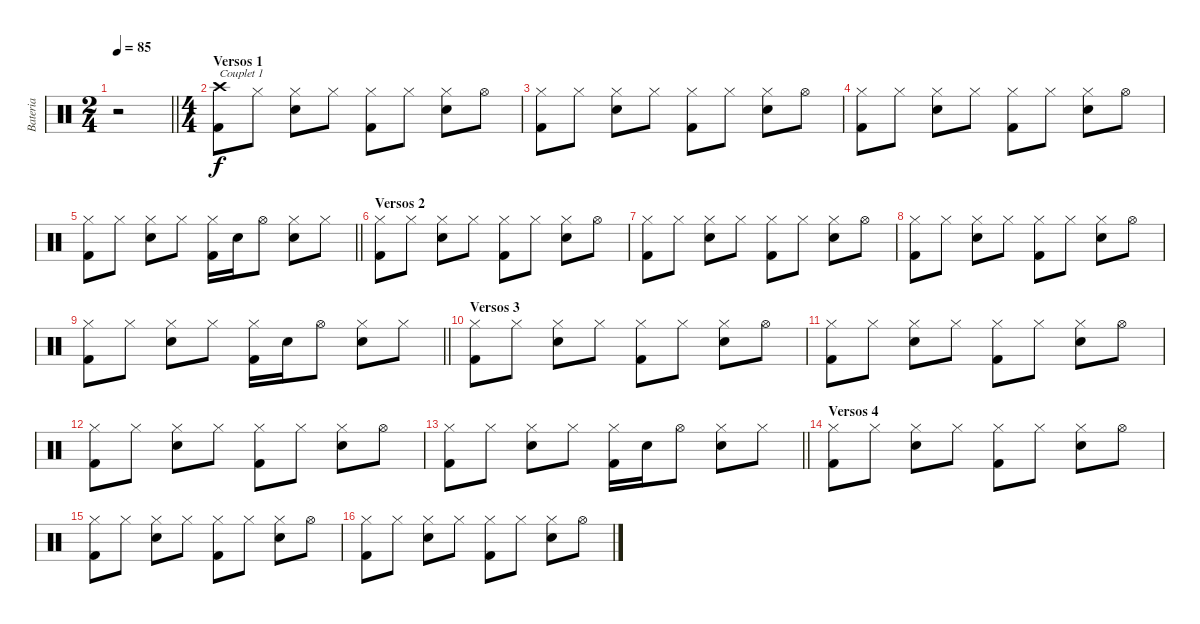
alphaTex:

\track ("Bateria" "Bateria") {instrument percussion}
\staff {score}
\articulation defaults
\ts (2 4)
\tempo 85
\clef neutral
\barLineRight lightlight
\ks c
r.2{dy f} |
\ts (4 4)
\section ("" "Versos 1")
("Crash high (hit)" "Kick (hit) 2").8{txt "Couplet 1"} "Hi-Hat (closed)".8 ("Hi-Hat (closed)" "Snare (hit) 2").8 "Hi-Hat (closed)".8 ("Hi-Hat (closed)" "Kick (hit) 2").8 "Hi-Hat (closed)".8 ("Hi-Hat (closed)" "Snare (hit) 2").8 "Hi-Hat (open)".8 |
("Hi-Hat (closed)" "Kick (hit) 2").8 "Hi-Hat (closed)".8 ("Hi-Hat (closed)" "Snare (hit) 2").8 "Hi-Hat (closed)".8 ("Hi-Hat (closed)" "Kick (hit) 2").8 "Hi-Hat (closed)".8 ("Hi-Hat (closed)" "Snare (hit) 2").8 "Hi-Hat (open)".8 |
("Hi-Hat (closed)" "Kick (hit) 2").8 "Hi-Hat (closed)".8 ("Hi-Hat (closed)" "Snare (hit) 2").8 "Hi-Hat (closed)".8 ("Hi-Hat (closed)" "Kick (hit) 2").8 "Hi-Hat (closed)".8 ("Hi-Hat (closed)" "Snare (hit) 2").8 "Hi-Hat (open)".8 |
\barLineRight lightlight
("Hi-Hat (closed)" "Kick (hit) 2").8 "Hi-Hat (closed)".8 ("Hi-Hat (closed)" "Snare (hit) 2").8 "Hi-Hat (closed)".8 ("Hi-Hat (closed)" "Kick (hit) 2").16 "Snare (hit) 2".16 "Hi-Hat (open)".8 ("Hi-Hat (closed)" "Snare (hit) 2").8 "Hi-Hat (closed)".8 |
\section ("" "Versos 2")
("Hi-Hat (closed)" "Kick (hit) 2").8 "Hi-Hat (closed)".8 ("Hi-Hat (closed)" "Snare (hit) 2").8 "Hi-Hat (closed)".8 ("Hi-Hat (closed)" "Kick (hit) 2").8 "Hi-Hat (closed)".8 ("Hi-Hat (closed)" "Snare (hit) 2").8 "Hi-Hat (open)".8 |
("Hi-Hat (closed)" "Kick (hit) 2").8 "Hi-Hat (closed)".8 ("Hi-Hat (closed)" "Snare (hit) 2").8 "Hi-Hat (closed)".8 ("Hi-Hat (closed)" "Kick (hit) 2").8 "Hi-Hat (closed)".8 ("Hi-Hat (closed)" "Snare (hit) 2").8 "Hi-Hat (open)".8 |
("Hi-Hat (closed)" "Kick (hit) 2").8 "Hi-Hat (closed)".8 ("Hi-Hat (closed)" "Snare (hit) 2").8 "Hi-Hat (closed)".8 ("Hi-Hat (closed)" "Kick (hit) 2").8 "Hi-Hat (closed)".8 ("Hi-Hat (closed)" "Snare (hit) 2").8 "Hi-Hat (open)".8 |
\barLineRight lightlight
("Hi-Hat (closed)" "Kick (hit) 2").8 "Hi-Hat (closed)".8 ("Hi-Hat (closed)" "Snare (hit) 2").8 "Hi-Hat (closed)".8 ("Hi-Hat (closed)" "Kick (hit) 2").16 "Snare (hit) 2".16 "Hi-Hat (open)".8 ("Hi-Hat (closed)" "Snare (hit) 2").8 "Hi-Hat (closed)".8 |
\section ("" "Versos 3")
("Hi-Hat (closed)" "Kick (hit) 2").8 "Hi-Hat (closed)".8 ("Hi-Hat (closed)" "Snare (hit) 2").8 "Hi-Hat (closed)".8 ("Hi-Hat (closed)" "Kick (hit) 2").8 "Hi-Hat (closed)".8 ("Hi-Hat (closed)" "Snare (hit) 2").8 "Hi-Hat (open)".8 |
("Hi-Hat (closed)" "Kick (hit) 2").8 "Hi-Hat (closed)".8 ("Hi-Hat (closed)" "Snare (hit) 2").8 "Hi-Hat (closed)".8 ("Hi-Hat (closed)" "Kick (hit) 2").8 "Hi-Hat (closed)".8 ("Hi-Hat (closed)" "Snare (hit) 2").8 "Hi-Hat (open)".8 |
("Hi-Hat (closed)" "Kick (hit) 2").8 "Hi-Hat (closed)".8 ("Hi-Hat (closed)" "Snare (hit) 2").8 "Hi-Hat (closed)".8 ("Hi-Hat (closed)" "Kick (hit) 2").8 "Hi-Hat (closed)".8 ("Hi-Hat (closed)" "Snare (hit) 2").8 "Hi-Hat (open)".8 |
\barLineRight lightlight
("Hi-Hat (closed)" "Kick (hit) 2").8 "Hi-Hat (closed)".8 ("Hi-Hat (closed)" "Snare (hit) 2").8 "Hi-Hat (closed)".8 ("Hi-Hat (closed)" "Kick (hit) 2").16 "Snare (hit) 2".16 "Hi-Hat (open)".8 ("Hi-Hat (closed)" "Snare (hit) 2").8 "Hi-Hat (closed)".8 |
\section ("" "Versos 4")
("Hi-Hat (closed)" "Kick (hit) 2").8 "Hi-Hat (closed)".8 ("Hi-Hat (closed)" "Snare (hit) 2").8 "Hi-Hat (closed)".8 ("Hi-Hat (closed)" "Kick (hit) 2").8 "Hi-Hat (closed)".8 ("Hi-Hat (closed)" "Snare (hit) 2").8 "Hi-Hat (open)".8 |
("Hi-Hat (closed)" "Kick (hit) 2").8 "Hi-Hat (closed)".8 ("Hi-Hat (closed)" "Snare (hit) 2").8 "Hi-Hat (closed)".8 ("Hi-Hat (closed)" "Kick (hit) 2").8 "Hi-Hat (closed)".8 ("Hi-Hat (closed)" "Snare (hit) 2").8 "Hi-Hat (open)".8 |
("Hi-Hat (closed)" "Kick (hit) 2").8 "Hi-Hat (closed)".8 ("Hi-Hat (closed)" "Snare (hit) 2").8 "Hi-Hat (closed)".8 ("Hi-Hat (closed)" "Kick (hit) 2").8 "Hi-Hat (closed)".8 ("Hi-Hat (closed)" "Snare (hit) 2").8 "Hi-Hat (open)".8
